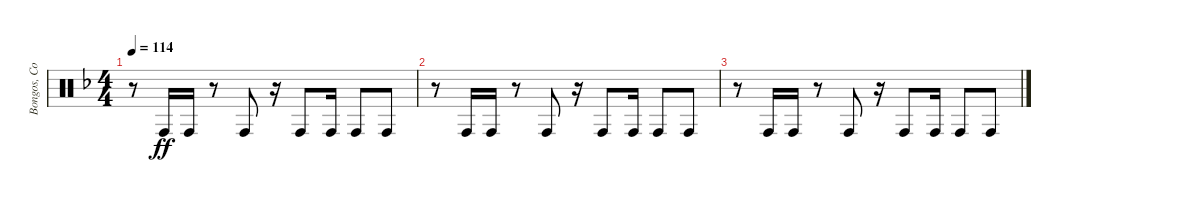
\track ("Bongos, Congas, Timbales" "Bongos, Co") {instrument percussion}
\staff {score}
\articulation defaults
\ts (4 4)
\tempo 114
\clef neutral
\ks f
r.8{dy ff} "Conga high (hit)".16 "Conga high (hit)".16 r.8 "Conga high (hit)".8 r.16 "Conga high (hit)".8 "Conga high (hit)".16 "Conga high (hit)".8 "Conga high (hit)".8 |
r.8 "Conga high (hit)".16 "Conga high (hit)".16 r.8 "Conga high (hit)".8 r.16 "Conga high (hit)".8 "Conga high (hit)".16 "Conga high (hit)".8 "Conga high (hit)".8 |
r.8 "Conga high (hit)".16 "Conga high (hit)".16 r.8 "Conga high (hit)".8 r.16 "Conga high (hit)".8 "Conga high (hit)".16 "Conga high (hit)".8 "Conga high (hit)".8
